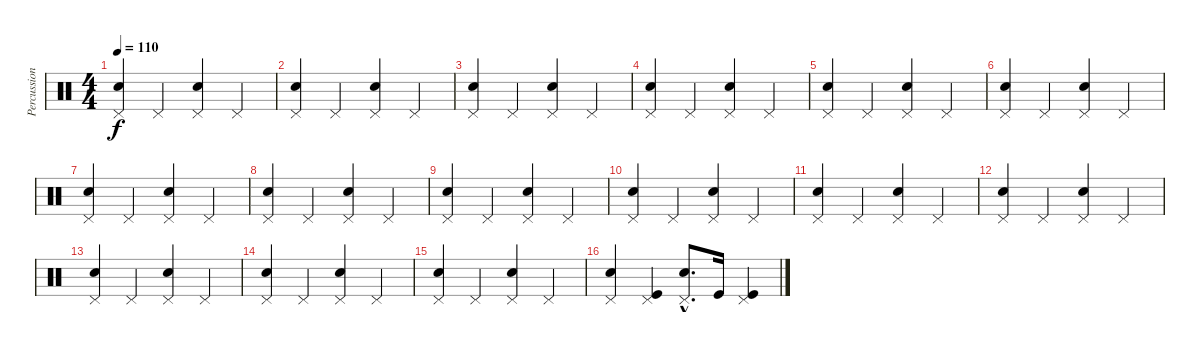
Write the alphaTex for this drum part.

\track ("Percussions" "Percussion") {instrument percussion}
\staff {score}
\articulation defaults
\ts (4 4)
\tempo 110
\clef neutral
\ks c
("Pedal Hi-Hat (hit)" "Hand Clap (hit)").4{dy f} "Pedal Hi-Hat (hit)".4 ("Pedal Hi-Hat (hit)" "Hand Clap (hit)").4 "Pedal Hi-Hat (hit)".4 |
("Pedal Hi-Hat (hit)" "Hand Clap (hit)").4 "Pedal Hi-Hat (hit)".4 ("Pedal Hi-Hat (hit)" "Hand Clap (hit)").4 "Pedal Hi-Hat (hit)".4 |
("Pedal Hi-Hat (hit)" "Hand Clap (hit)").4 "Pedal Hi-Hat (hit)".4 ("Pedal Hi-Hat (hit)" "Hand Clap (hit)").4 "Pedal Hi-Hat (hit)".4 |
("Pedal Hi-Hat (hit)" "Hand Clap (hit)").4 "Pedal Hi-Hat (hit)".4 ("Pedal Hi-Hat (hit)" "Hand Clap (hit)").4 "Pedal Hi-Hat (hit)".4 |
("Pedal Hi-Hat (hit)" "Hand Clap (hit)").4 "Pedal Hi-Hat (hit)".4 ("Pedal Hi-Hat (hit)" "Hand Clap (hit)").4 "Pedal Hi-Hat (hit)".4 |
("Pedal Hi-Hat (hit)" "Hand Clap (hit)").4 "Pedal Hi-Hat (hit)".4 ("Pedal Hi-Hat (hit)" "Hand Clap (hit)").4 "Pedal Hi-Hat (hit)".4 |
("Pedal Hi-Hat (hit)" "Hand Clap (hit)").4 "Pedal Hi-Hat (hit)".4 ("Pedal Hi-Hat (hit)" "Hand Clap (hit)").4 "Pedal Hi-Hat (hit)".4 |
("Pedal Hi-Hat (hit)" "Hand Clap (hit)").4 "Pedal Hi-Hat (hit)".4 ("Pedal Hi-Hat (hit)" "Hand Clap (hit)").4 "Pedal Hi-Hat (hit)".4 |
("Pedal Hi-Hat (hit)" "Hand Clap (hit)").4 "Pedal Hi-Hat (hit)".4 ("Pedal Hi-Hat (hit)" "Hand Clap (hit)").4 "Pedal Hi-Hat (hit)".4 |
("Pedal Hi-Hat (hit)" "Hand Clap (hit)").4 "Pedal Hi-Hat (hit)".4 ("Pedal Hi-Hat (hit)" "Hand Clap (hit)").4 "Pedal Hi-Hat (hit)".4 |
("Pedal Hi-Hat (hit)" "Hand Clap (hit)").4 "Pedal Hi-Hat (hit)".4 ("Pedal Hi-Hat (hit)" "Hand Clap (hit)").4 "Pedal Hi-Hat (hit)".4 |
("Pedal Hi-Hat (hit)" "Hand Clap (hit)").4 "Pedal Hi-Hat (hit)".4 ("Pedal Hi-Hat (hit)" "Hand Clap (hit)").4 "Pedal Hi-Hat (hit)".4 |
("Pedal Hi-Hat (hit)" "Hand Clap (hit)").4 "Pedal Hi-Hat (hit)".4 ("Pedal Hi-Hat (hit)" "Hand Clap (hit)").4 "Pedal Hi-Hat (hit)".4 |
("Pedal Hi-Hat (hit)" "Hand Clap (hit)").4 "Pedal Hi-Hat (hit)".4 ("Pedal Hi-Hat (hit)" "Hand Clap (hit)").4 "Pedal Hi-Hat (hit)".4 |
("Pedal Hi-Hat (hit)" "Hand Clap (hit)").4 "Pedal Hi-Hat (hit)".4 ("Pedal Hi-Hat (hit)" "Hand Clap (hit)").4 "Pedal Hi-Hat (hit)".4 |
("Pedal Hi-Hat (hit)" "Hand Clap (hit)").4 ("Pedal Hi-Hat (hit)" "Kick (hit)").4 ("Pedal Hi-Hat (hit)"{hac} "Hand Clap (hit)"{hac}).8{d} "Kick (hit)".16 ("Pedal Hi-Hat (hit)" "Kick (hit)").4
